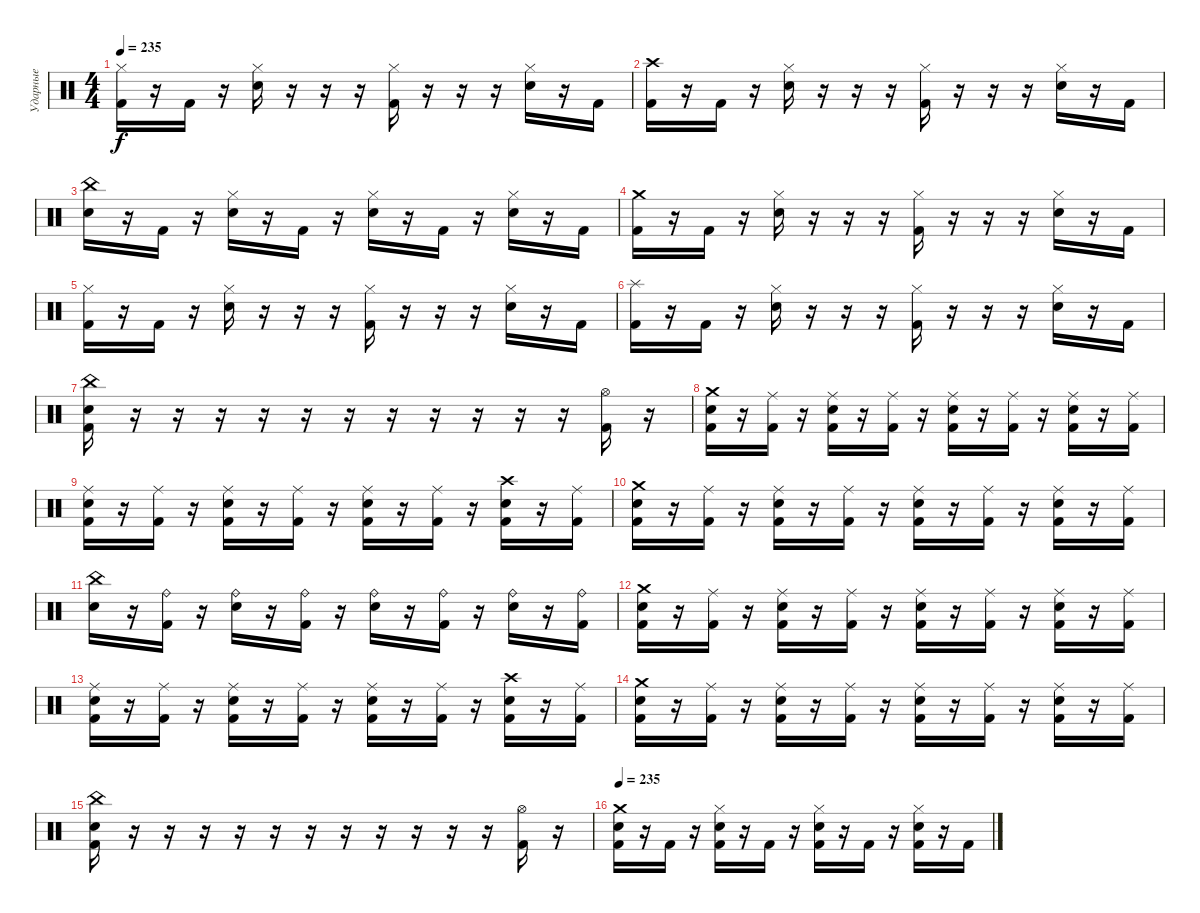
\track ("Ударные" "Ударные") {instrument percussion}
\staff {score}
\articulation defaults
\ts (4 4)
\tempo 235
\clef neutral
\ks c
("Hi-Hat (closed)" "Kick (hit) 2").16{dy f} r.16 "Kick (hit) 2".16 r.16 ("Hi-Hat (closed)" "Snare (hit) 2").16 r.16 r.16 r.16 ("Hi-Hat (closed)" "Kick (hit) 2").16 r.16 r.16 r.16 ("Hi-Hat (closed)" "Snare (hit) 2").16 r.16 "Kick (hit) 2".16 |
("Crash high (hit)" "Kick (hit) 2").16 r.16 "Kick (hit) 2".16 r.16 ("Hi-Hat (closed)" "Snare (hit) 2").16 r.16 r.16 r.16 ("Hi-Hat (closed)" "Kick (hit) 2").16 r.16 r.16 r.16 ("Hi-Hat (closed)" "Snare (hit) 2").16 r.16 "Kick (hit) 2".16 |
("China (hit)" "Snare (hit) 2").16 r.16 "Kick (hit) 2".16 r.16 ("Hi-Hat (closed)" "Snare (hit) 2").16 r.16 "Kick (hit) 2".16 r.16 ("Hi-Hat (closed)" "Snare (hit) 2").16 r.16 "Kick (hit) 2".16 r.16 ("Hi-Hat (closed)" "Snare (hit) 2").16 r.16 "Kick (hit) 2".16 |
("Crash medium (hit)" "Kick (hit) 2").16 r.16 "Kick (hit) 2".16 r.16 ("Hi-Hat (closed)" "Snare (hit) 2").16 r.16 r.16 r.16 ("Hi-Hat (closed)" "Kick (hit) 2").16 r.16 r.16 r.16 ("Hi-Hat (closed)" "Snare (hit) 2").16 r.16 "Kick (hit) 2".16 |
("Hi-Hat (closed)" "Kick (hit) 2").16 r.16 "Kick (hit) 2".16 r.16 ("Hi-Hat (closed)" "Snare (hit) 2").16 r.16 r.16 r.16 ("Hi-Hat (closed)" "Kick (hit) 2").16 r.16 r.16 r.16 ("Hi-Hat (closed)" "Snare (hit) 2").16 r.16 "Kick (hit) 2".16 |
("Splash (hit)" "Kick (hit) 2").16 r.16 "Kick (hit) 2".16 r.16 ("Hi-Hat (closed)" "Snare (hit) 2").16 r.16 r.16 r.16 ("Hi-Hat (closed)" "Kick (hit) 2").16 r.16 r.16 r.16 ("Hi-Hat (closed)" "Snare (hit) 2").16 r.16 "Kick (hit) 2".16 |
("China (hit)" "Snare (hit) 2" "Kick (hit) 2").16 r.16 r.16 r.16 r.16 r.16 r.16 r.16 r.16 r.16 r.16 r.16 ("Hi-Hat (open)" "Kick (hit) 2").16 r.16 |
("Crash medium (hit)" "Snare (hit) 2" "Kick (hit) 2").16 r.16 ("Ride (middle)" "Kick (hit) 2").16 r.16 ("Ride (middle)" "Snare (hit) 2" "Kick (hit) 2").16 r.16 ("Ride (middle)" "Kick (hit) 2").16 r.16 ("Ride (middle)" "Snare (hit) 2" "Kick (hit) 2").16 r.16 ("Ride (middle)" "Kick (hit) 2").16 r.16 ("Ride (middle)" "Snare (hit) 2" "Kick (hit) 2").16 r.16 ("Ride (middle)" "Kick (hit) 2").16 |
("Ride (middle)" "Snare (hit) 2" "Kick (hit) 2").16 r.16 ("Ride (middle)" "Kick (hit) 2").16 r.16 ("Ride (middle)" "Snare (hit) 2" "Kick (hit) 2").16 r.16 ("Ride (middle)" "Kick (hit) 2").16 r.16 ("Ride (middle)" "Snare (hit) 2" "Kick (hit) 2").16 r.16 ("Ride (middle)" "Kick (hit) 2").16 r.16 ("Crash high (hit)" "Snare (hit) 2" "Kick (hit) 2").16 r.16 ("Ride (middle)" "Kick (hit) 2").16 |
("Crash medium (hit)" "Snare (hit) 2" "Kick (hit) 2").16 r.16 ("Ride (middle)" "Kick (hit) 2").16 r.16 ("Ride (middle)" "Snare (hit) 2" "Kick (hit) 2").16 r.16 ("Ride (middle)" "Kick (hit) 2").16 r.16 ("Ride (middle)" "Snare (hit) 2" "Kick (hit) 2").16 r.16 ("Ride (middle)" "Kick (hit) 2").16 r.16 ("Ride (middle)" "Snare (hit) 2" "Kick (hit) 2").16 r.16 ("Ride (middle)" "Kick (hit) 2").16 |
("China (hit)" "Snare (hit) 2").16 r.16 ("Ride (bell)" "Kick (hit) 2").16 r.16 ("Ride (bell)" "Snare (hit) 2").16 r.16 ("Ride (bell)" "Kick (hit) 2").16 r.16 ("Ride (bell)" "Snare (hit) 2").16 r.16 ("Ride (bell)" "Kick (hit) 2").16 r.16 ("Ride (bell)" "Snare (hit) 2").16 r.16 ("Ride (bell)" "Kick (hit) 2").16 |
("Crash medium (hit)" "Snare (hit) 2" "Kick (hit) 2").16 r.16 ("Ride (middle)" "Kick (hit) 2").16 r.16 ("Ride (middle)" "Snare (hit) 2" "Kick (hit) 2").16 r.16 ("Ride (middle)" "Kick (hit) 2").16 r.16 ("Ride (middle)" "Snare (hit) 2" "Kick (hit) 2").16 r.16 ("Ride (middle)" "Kick (hit) 2").16 r.16 ("Ride (middle)" "Snare (hit) 2" "Kick (hit) 2").16 r.16 ("Ride (middle)" "Kick (hit) 2").16 |
("Ride (middle)" "Snare (hit) 2" "Kick (hit) 2").16 r.16 ("Ride (middle)" "Kick (hit) 2").16 r.16 ("Ride (middle)" "Snare (hit) 2" "Kick (hit) 2").16 r.16 ("Ride (middle)" "Kick (hit) 2").16 r.16 ("Ride (middle)" "Snare (hit) 2" "Kick (hit) 2").16 r.16 ("Ride (middle)" "Kick (hit) 2").16 r.16 ("Crash high (hit)" "Snare (hit) 2" "Kick (hit) 2").16 r.16 ("Ride (middle)" "Kick (hit) 2").16 |
("Crash medium (hit)" "Snare (hit) 2" "Kick (hit) 2").16 r.16 ("Ride (middle)" "Kick (hit) 2").16 r.16 ("Ride (middle)" "Snare (hit) 2" "Kick (hit) 2").16 r.16 ("Ride (middle)" "Kick (hit) 2").16 r.16 ("Ride (middle)" "Snare (hit) 2" "Kick (hit) 2").16 r.16 ("Ride (middle)" "Kick (hit) 2").16 r.16 ("Ride (middle)" "Snare (hit) 2" "Kick (hit) 2").16 r.16 ("Ride (middle)" "Kick (hit) 2").16 |
("China (hit)" "Snare (hit) 2" "Kick (hit) 2").16 r.16 r.16 r.16 r.16 r.16 r.16 r.16 r.16 r.16 r.16 r.16 ("Hi-Hat (open)" "Kick (hit) 2").16 r.16 |
\tempo 235
("Crash medium (hit)" "Snare (hit) 2" "Kick (hit) 2").16 r.16 "Kick (hit) 2".16 r.16 ("Hi-Hat (closed)" "Snare (hit) 2" "Kick (hit) 2").16 r.16 "Kick (hit) 2".16 r.16 ("Hi-Hat (closed)" "Snare (hit) 2" "Kick (hit) 2").16 r.16 "Kick (hit) 2".16 r.16 ("Hi-Hat (closed)" "Snare (hit) 2" "Kick (hit) 2").16 r.16 "Kick (hit) 2".16
